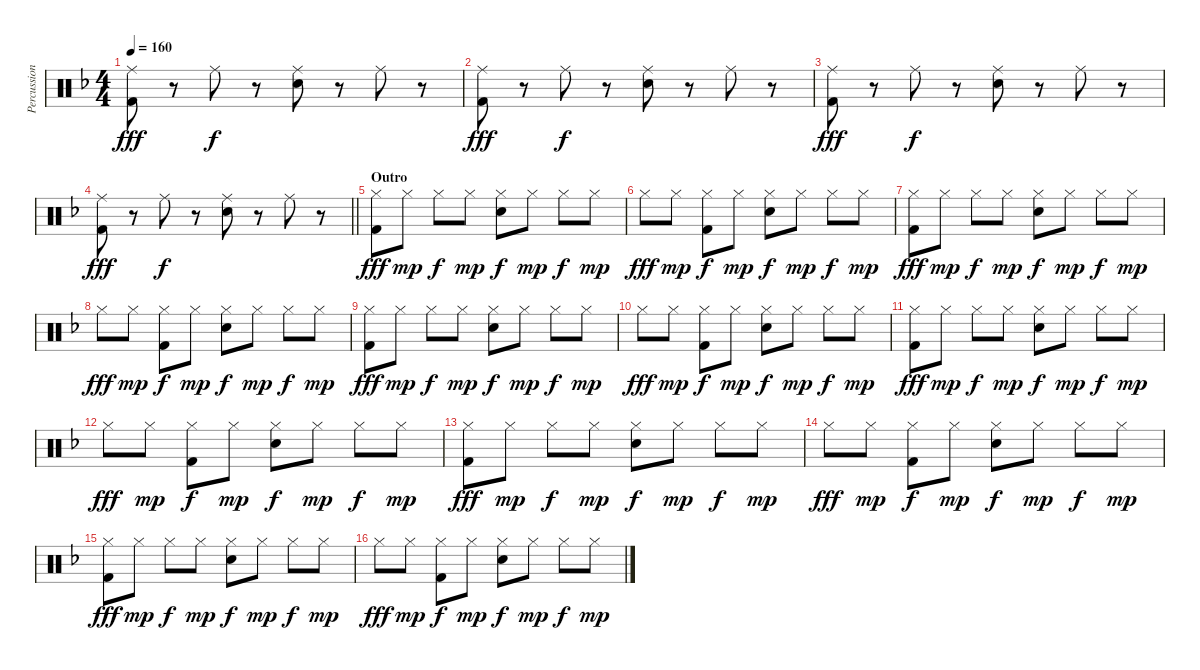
\track ("Percussion" "Percussion") {instrument percussion}
\staff {score}
\articulation defaults
\ts (4 4)
\tempo 160
\clef neutral
\ks f
("Ride (middle)" "Kick (hit) 2").8{dy fff} r.8 "Ride (middle)".8{dy f} r.8 ("Ride (middle)" "Electric Snare (hit)").8 r.8 "Ride (middle)".8 r.8 |
("Ride (middle)" "Kick (hit) 2").8{dy fff} r.8 "Ride (middle)".8{dy f} r.8 ("Ride (middle)" "Electric Snare (hit)").8 r.8 "Ride (middle)".8 r.8 |
("Ride (middle)" "Kick (hit) 2").8{dy fff} r.8 "Ride (middle)".8{dy f} r.8 ("Ride (middle)" "Electric Snare (hit)").8 r.8 "Ride (middle)".8 r.8 |
\barLineRight lightlight
("Ride (middle)" "Kick (hit) 2").8{dy fff} r.8 "Ride (middle)".8{dy f} r.8 ("Ride (middle)" "Electric Snare (hit)").8 r.8 "Ride (middle)".8 r.8 |
\section ("" "Outro")
("Hi-Hat (closed)" "Kick (hit) 2").8{dy fff} "Hi-Hat (closed)".8{dy mp} "Hi-Hat (closed)".8{dy f} "Hi-Hat (closed)".8{dy mp} ("Hi-Hat (closed)" "Electric Snare (hit)").8{dy f} "Hi-Hat (closed)".8{dy mp} "Hi-Hat (closed)".8{dy f} "Hi-Hat (closed)".8{dy mp} |
"Hi-Hat (closed)".8{dy fff} "Hi-Hat (closed)".8{dy mp} ("Hi-Hat (closed)" "Kick (hit) 2").8{dy f} "Hi-Hat (closed)".8{dy mp} ("Hi-Hat (closed)" "Electric Snare (hit)").8{dy f} "Hi-Hat (closed)".8{dy mp} "Hi-Hat (closed)".8{dy f} "Hi-Hat (closed)".8{dy mp} |
("Hi-Hat (closed)" "Kick (hit) 2").8{dy fff} "Hi-Hat (closed)".8{dy mp} "Hi-Hat (closed)".8{dy f} "Hi-Hat (closed)".8{dy mp} ("Hi-Hat (closed)" "Electric Snare (hit)").8{dy f} "Hi-Hat (closed)".8{dy mp} "Hi-Hat (closed)".8{dy f} "Hi-Hat (closed)".8{dy mp} |
"Hi-Hat (closed)".8{dy fff} "Hi-Hat (closed)".8{dy mp} ("Hi-Hat (closed)" "Kick (hit) 2").8{dy f} "Hi-Hat (closed)".8{dy mp} ("Hi-Hat (closed)" "Electric Snare (hit)").8{dy f} "Hi-Hat (closed)".8{dy mp} "Hi-Hat (closed)".8{dy f} "Hi-Hat (closed)".8{dy mp} |
("Hi-Hat (closed)" "Kick (hit) 2").8{dy fff} "Hi-Hat (closed)".8{dy mp} "Hi-Hat (closed)".8{dy f} "Hi-Hat (closed)".8{dy mp} ("Hi-Hat (closed)" "Electric Snare (hit)").8{dy f} "Hi-Hat (closed)".8{dy mp} "Hi-Hat (closed)".8{dy f} "Hi-Hat (closed)".8{dy mp} |
"Hi-Hat (closed)".8{dy fff} "Hi-Hat (closed)".8{dy mp} ("Hi-Hat (closed)" "Kick (hit) 2").8{dy f} "Hi-Hat (closed)".8{dy mp} ("Hi-Hat (closed)" "Electric Snare (hit)").8{dy f} "Hi-Hat (closed)".8{dy mp} "Hi-Hat (closed)".8{dy f} "Hi-Hat (closed)".8{dy mp} |
("Hi-Hat (closed)" "Kick (hit) 2").8{dy fff} "Hi-Hat (closed)".8{dy mp} "Hi-Hat (closed)".8{dy f} "Hi-Hat (closed)".8{dy mp} ("Hi-Hat (closed)" "Electric Snare (hit)").8{dy f} "Hi-Hat (closed)".8{dy mp} "Hi-Hat (closed)".8{dy f} "Hi-Hat (closed)".8{dy mp} |
"Hi-Hat (closed)".8{dy fff} "Hi-Hat (closed)".8{dy mp} ("Hi-Hat (closed)" "Kick (hit) 2").8{dy f} "Hi-Hat (closed)".8{dy mp} ("Hi-Hat (closed)" "Electric Snare (hit)").8{dy f} "Hi-Hat (closed)".8{dy mp} "Hi-Hat (closed)".8{dy f} "Hi-Hat (closed)".8{dy mp} |
("Hi-Hat (closed)" "Kick (hit) 2").8{dy fff} "Hi-Hat (closed)".8{dy mp} "Hi-Hat (closed)".8{dy f} "Hi-Hat (closed)".8{dy mp} ("Hi-Hat (closed)" "Electric Snare (hit)").8{dy f} "Hi-Hat (closed)".8{dy mp} "Hi-Hat (closed)".8{dy f} "Hi-Hat (closed)".8{dy mp} |
"Hi-Hat (closed)".8{dy fff} "Hi-Hat (closed)".8{dy mp} ("Hi-Hat (closed)" "Kick (hit) 2").8{dy f} "Hi-Hat (closed)".8{dy mp} ("Hi-Hat (closed)" "Electric Snare (hit)").8{dy f} "Hi-Hat (closed)".8{dy mp} "Hi-Hat (closed)".8{dy f} "Hi-Hat (closed)".8{dy mp} |
("Hi-Hat (closed)" "Kick (hit) 2").8{dy fff} "Hi-Hat (closed)".8{dy mp} "Hi-Hat (closed)".8{dy f} "Hi-Hat (closed)".8{dy mp} ("Hi-Hat (closed)" "Electric Snare (hit)").8{dy f} "Hi-Hat (closed)".8{dy mp} "Hi-Hat (closed)".8{dy f} "Hi-Hat (closed)".8{dy mp} |
"Hi-Hat (closed)".8{dy fff} "Hi-Hat (closed)".8{dy mp} ("Hi-Hat (closed)" "Kick (hit) 2").8{dy f} "Hi-Hat (closed)".8{dy mp} ("Hi-Hat (closed)" "Electric Snare (hit)").8{dy f} "Hi-Hat (closed)".8{dy mp} "Hi-Hat (closed)".8{dy f} "Hi-Hat (closed)".8{dy mp}
